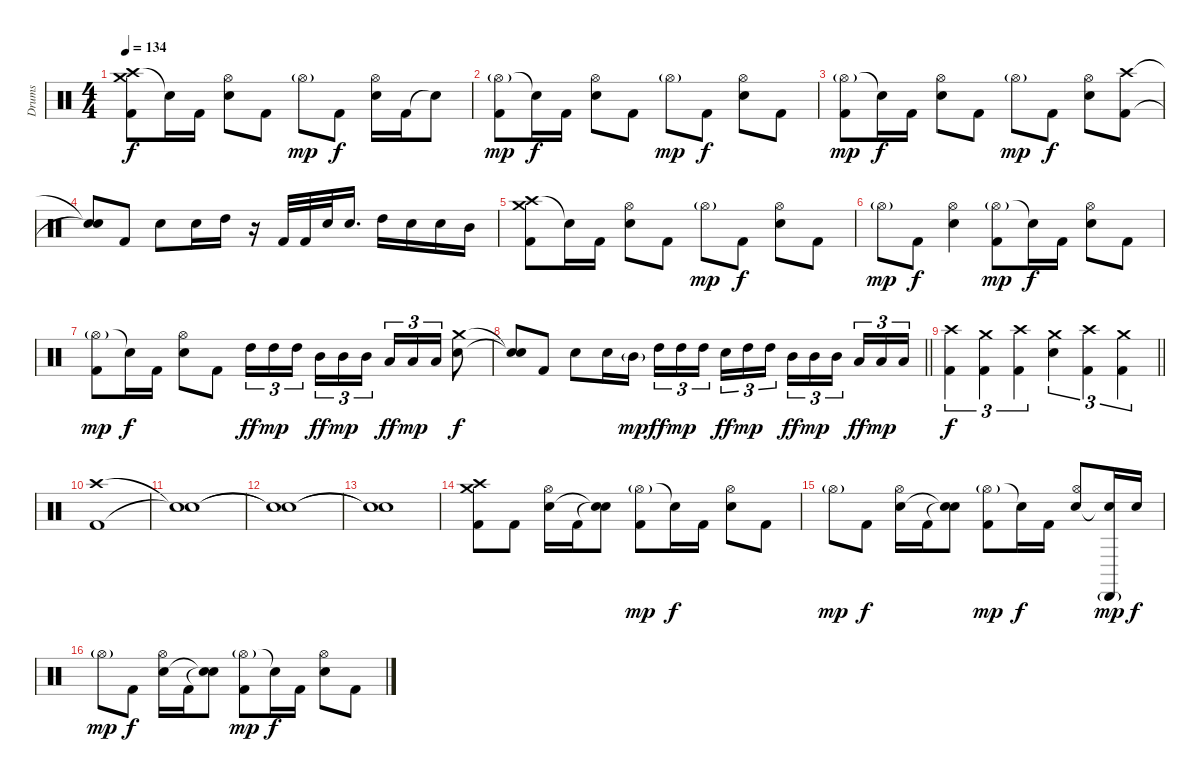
\track ("Drums" "Drums") {instrument percussion}
\staff {score}
\articulation defaults
\ts (4 4)
\tempo 134
\clef neutral
\ks c
("Crash high (hit)" "Crash medium (hit)" "Kick (hit) 2").8{dy f} "Snare (hit)"{t}.16 "Kick (hit) 2".16 ("Hi-Hat (open)" "Electric Snare (hit)").8 "Kick (hit) 2".8 "Hi-Hat (open)"{g}.8{dy mp} "Kick (hit) 2".8{dy f} ("Hi-Hat (open)" "Electric Snare (hit)").16 "Kick (hit) 2".16 "Snare (hit)"{t}.8 |
("Hi-Hat (open)"{g} "Kick (hit) 2").8{dy mp} "Snare (hit)"{t}.16{dy f} "Kick (hit) 2".16 ("Hi-Hat (open)" "Electric Snare (hit)").8 "Kick (hit) 2".8 "Hi-Hat (open)"{g}.8{dy mp} "Kick (hit) 2".8{dy f} ("Hi-Hat (open)" "Electric Snare (hit)").8 "Kick (hit) 2".8 |
("Hi-Hat (open)"{g} "Kick (hit) 2").8{dy mp} "Snare (hit)"{t}.16{dy f} "Kick (hit) 2".16 ("Hi-Hat (open)" "Electric Snare (hit)").8 "Kick (hit) 2".8 "Hi-Hat (open)"{g}.8{dy mp} "Kick (hit) 2".8{dy f} ("Hi-Hat (open)" "Electric Snare (hit)").8 ("Crash high (hit)" "Kick (hit) 2").8 |
("Snare (hit)"{t} "Snare (hit)"{t}).8 "Kick (hit) 2".8 "Electric Snare (hit)".8 "Electric Snare (hit)".16 "High Tom (hit)".16 r.16 "Kick (hit) 2".32 "Kick (hit) 2".32 "Electric Snare (hit)".32 "Electric Snare (hit)".16{d} "High Tom (hit)".16 "Electric Snare (hit)".16 "Electric Snare (hit)".16 "Mid Tom (hit)".16 |
("Crash high (hit)" "Crash medium (hit)" "Kick (hit) 2").8 "Snare (hit)"{t}.16 "Kick (hit) 2".16 ("Hi-Hat (open)" "Electric Snare (hit)").8 "Kick (hit) 2".8 "Hi-Hat (open)"{g}.8{dy mp} "Kick (hit) 2".8{dy f} ("Hi-Hat (open)" "Electric Snare (hit)").8 "Kick (hit) 2".8 |
"Hi-Hat (open)"{g}.8{dy mp} "Kick (hit) 2".8{dy f} ("Hi-Hat (open)" "Electric Snare (hit)").4 ("Hi-Hat (open)"{g} "Kick (hit) 2").8{dy mp} "Snare (hit)"{t}.16{dy f} "Kick (hit) 2".16 ("Hi-Hat (open)" "Electric Snare (hit)").8 "Kick (hit) 2".8 |
("Hi-Hat (open)"{g} "Kick (hit) 2").8{dy mp} "Snare (hit)"{t}.16{dy f} "Kick (hit) 2".16 ("Hi-Hat (open)" "Electric Snare (hit)").8 "Kick (hit) 2".8 "High Tom (hit)".16{tu (3 2) dy ff} "High Tom (hit)".16{tu (3 2) dy mp} "High Tom (hit)".16{tu (3 2)} "Mid Tom (hit)".16{tu (3 2) dy ff} "Mid Tom (hit)".16{tu (3 2) dy mp} "Mid Tom (hit)".16{tu (3 2)} "Low Tom (hit)".16{tu (3 2) dy ff} "Low Tom (hit)".16{tu (3 2) dy mp} "Low Tom (hit)".16{tu (3 2)} ("Crash medium (hit)" "Electric Snare (hit)").8{dy f} |
\barLineRight lightlight
("Snare (hit)"{t} "Snare (hit)"{t}).8 "Kick (hit) 2".8 "Electric Snare (hit)".8 "Electric Snare (hit)".16 "Mid Tom (hit)"{g}.16{dy mp} "High Tom (hit)".16{tu (3 2) dy ff} "High Tom (hit)".16{tu (3 2) dy mp} "High Tom (hit)".16{tu (3 2)} "Electric Snare (hit)".16{tu (3 2) dy ff} "High Tom (hit)".16{tu (3 2) dy mp} "High Tom (hit)".16{tu (3 2)} "Mid Tom (hit)".16{tu (3 2) dy ff} "Mid Tom (hit)".16{tu (3 2) dy mp} "Mid Tom (hit)".16{tu (3 2)} "Low Tom (hit)".16{tu (3 2) dy ff} "Low Tom (hit)".16{tu (3 2) dy mp} "Low Tom (hit)".16{tu (3 2)} |
\barLineRight lightlight
("Crash high (hit)" "Kick (hit) 2").4{tu (3 2) dy f} ("Crash medium (hit)" "Kick (hit) 2").4{tu (3 2)} ("Crash high (hit)" "Kick (hit) 2").4{tu (3 2)} ("Crash medium (hit)" "Electric Snare (hit)").4{tu (3 2)} ("Crash high (hit)" "Kick (hit) 2").4{tu (3 2)} ("Crash medium (hit)" "Kick (hit) 2").4{tu (3 2)} |
("Crash high (hit)" "Kick (hit) 2").1 |
("Snare (hit)"{t} "Snare (hit)"{t}).1 |
("Snare (hit)"{t} "Snare (hit)"{t}).1 |
("Snare (hit)"{t} "Snare (hit)"{t}).1 |
("Crash high (hit)" "Crash medium (hit)" "Kick (hit) 2").8 "Kick (hit) 2".8 ("Hi-Hat (open)" "Electric Snare (hit)").16 "Kick (hit) 2".16 ("Snare (hit)"{t} "Snare (hit)"{t}).8 ("Hi-Hat (open)"{g} "Kick (hit) 2").8{dy mp} "Snare (hit)"{t}.16{dy f} "Kick (hit) 2".16 ("Hi-Hat (open)" "Electric Snare (hit)").8 "Kick (hit) 2".8 |
"Hi-Hat (open)"{g}.8{dy mp} "Kick (hit) 2".8{dy f} ("Hi-Hat (open)" "Electric Snare (hit)").16 "Kick (hit) 2".16 ("Snare (hit)"{t} "Snare (hit)"{t}).8 ("Hi-Hat (open)"{g} "Kick (hit) 2").8{dy mp} "Snare (hit)"{t}.16{dy f} "Kick (hit) 2".16 ("Hi-Hat (open)" "Electric Snare (hit)").8 ("Cabasa (hit)"{g} "Snare (hit)"{t}).16{dy mp} "Electric Snare (hit)".16{dy f} |
"Hi-Hat (open)"{g}.8{dy mp} "Kick (hit) 2".8{dy f} ("Hi-Hat (open)" "Electric Snare (hit)").16 "Kick (hit) 2".16 ("Snare (hit)"{t} "Snare (hit)"{t}).8 ("Hi-Hat (open)"{g} "Kick (hit) 2").8{dy mp} "Snare (hit)"{t}.16{dy f} "Kick (hit) 2".16 ("Hi-Hat (open)" "Electric Snare (hit)").8 "Kick (hit) 2".8
